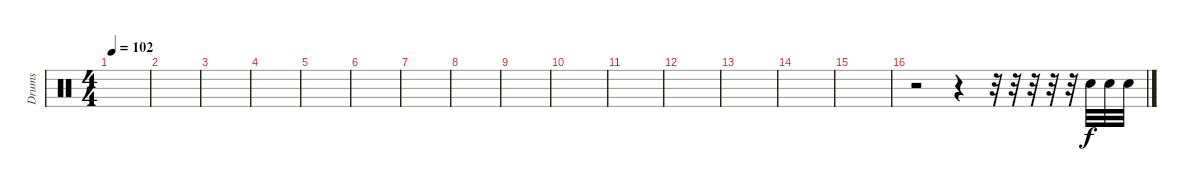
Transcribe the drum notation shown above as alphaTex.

\track ("Drums" "Drums") {instrument percussion}
\staff {score}
\articulation defaults
\ts (4 4)
\tempo 102
\clef neutral
\ks c
|
|
|
|
|
|
|
|
|
|
|
|
|
|
|
r.2 r.4 r.32 r.32 r.32 r.32 r.32 "Snare (hit) 2".32 "Snare (hit) 2".32 "Snare (hit) 2".32
